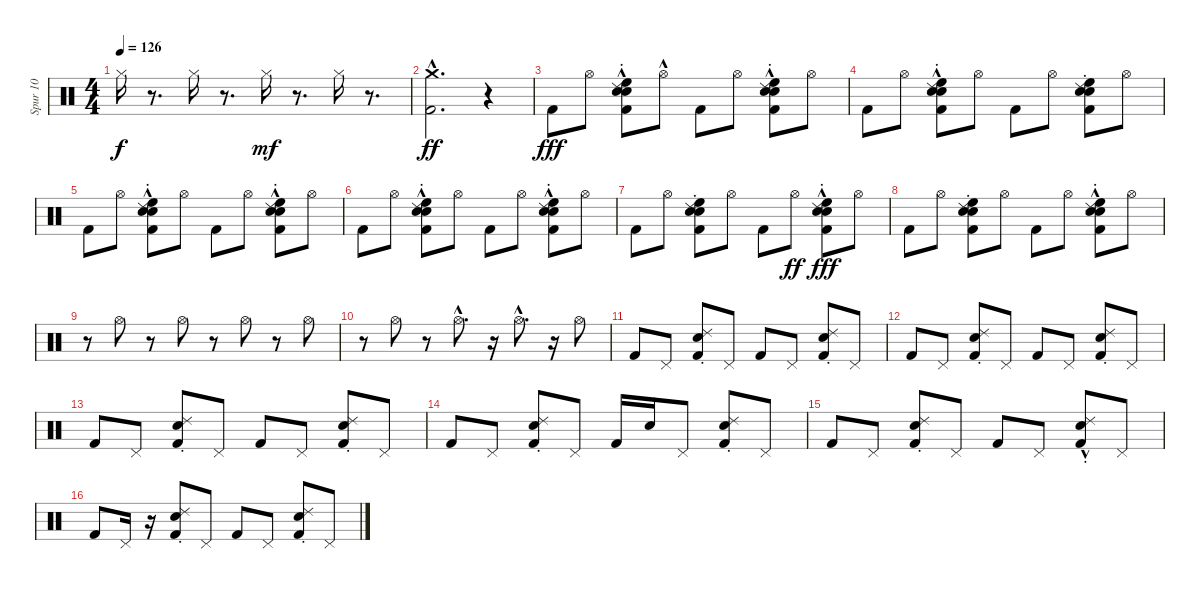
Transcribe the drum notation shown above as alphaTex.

\track ("Spur 10" "Spur 10") {instrument percussion}
\staff {score}
\articulation defaults
\ts (4 4)
\tempo 126
\clef neutral
\ks c "Hi-Hat (closed)".16{dy f}
r.8{d} "Hi-Hat (closed)".16 r.8{d} "Hi-Hat (closed)".16{dy mf} r.8{d} "Hi-Hat (closed)".16 r.8{d} |
("Kick (hit) 2"{hac} "Crash medium (hit)"{hac}).2{d dy ff} r.4 |
"Kick (hit) 2".8{dy fff} "Hi-Hat (open)".8 ("Kick (hit) 2" "Electric Snare (hit)" "High Floor Tom (hit)"{hac} "Ride (choke) 2"{hac} "Snare (hit) 2").8 "Hi-Hat (open)"{hac}.8 "Kick (hit) 2".8 "Hi-Hat (open)".8 ("High Floor Tom (hit)"{hac} "Kick (hit) 2" "Ride (choke) 2" "Electric Snare (hit)" "Snare (hit) 2").8 "Hi-Hat (open)".8 |
"Kick (hit) 2".8 "Hi-Hat (open)".8 ("Kick (hit) 2" "High Floor Tom (hit)"{hac} "Ride (choke) 2"{hac} "Electric Snare (hit)" "Snare (hit) 2").8 "Hi-Hat (open)".8 "Kick (hit) 2".8 "Hi-Hat (open)".8 ("Snare (hit) 2" "Kick (hit) 2" "Electric Snare (hit)" "High Floor Tom (hit)" "Ride (choke) 2").8 "Hi-Hat (open)".8 |
"Kick (hit) 2".8 "Hi-Hat (open)".8 ("High Floor Tom (hit)"{hac} "Ride (choke) 2"{hac} "Electric Snare (hit)" "Snare (hit) 2" "Kick (hit) 2").8 "Hi-Hat (open)".8 "Kick (hit) 2".8 "Hi-Hat (open)".8 ("Electric Snare (hit)" "Kick (hit) 2" "Ride (choke) 2"{hac} "High Floor Tom (hit)"{hac} "Snare (hit) 2").8 "Hi-Hat (open)".8 |
"Kick (hit) 2".8 "Hi-Hat (open)".8 ("High Floor Tom (hit)"{hac} "Electric Snare (hit)" "Ride (choke) 2"{hac} "Kick (hit) 2" "Snare (hit) 2").8 "Hi-Hat (open)".8 "Kick (hit) 2".8 "Hi-Hat (open)".8 ("Kick (hit) 2" "High Floor Tom (hit)"{hac} "Ride (choke) 2"{hac} "Electric Snare (hit)" "Snare (hit) 2").8 "Hi-Hat (open)".8 |
"Kick (hit) 2".8 "Hi-Hat (open)".8 ("Snare (hit) 2" "Kick (hit) 2" "Ride (choke) 2" "Electric Snare (hit)" "High Floor Tom (hit)").8 "Hi-Hat (open)".8 "Kick (hit) 2".8 "Hi-Hat (open)".8{dy ff} ("High Floor Tom (hit)"{hac} "Ride (choke) 2" "Snare (hit) 2" "Electric Snare (hit)" "Kick (hit) 2").8{dy fff} "Hi-Hat (open)".8 |
"Kick (hit) 2".8 "Hi-Hat (open)".8 ("Electric Snare (hit)" "Kick (hit) 2" "Snare (hit) 2" "High Floor Tom (hit)" "Ride (choke) 2").8 "Hi-Hat (open)".8 "Kick (hit) 2".8 "Hi-Hat (open)".8 ("Snare (hit) 2" "Ride (choke) 2"{hac} "High Floor Tom (hit)"{hac} "Kick (hit) 2" "Electric Snare (hit)").8 "Hi-Hat (open)".8 |
r.8 "Hi-Hat (open)".8 r.8 "Hi-Hat (open)".8 r.8 "Hi-Hat (open)".8 r.8 "Hi-Hat (open)".8 |
r.8 "Hi-Hat (open)".8 r.8 "Hi-Hat (open)"{hac}.8{d} r.16 "Hi-Hat (open)"{hac}.8{d} r.16 "Hi-Hat (open)".8 |
"Kick (hit) 2".8 "Pedal Hi-Hat (hit)".8 ("Kick (hit) 2" "Ride (choke) 2" "Snare (hit) 2").8 "Pedal Hi-Hat (hit)".8 "Kick (hit) 2".8 "Pedal Hi-Hat (hit)".8 ("Kick (hit) 2" "Snare (hit) 2" "Ride (choke) 2").8 "Pedal Hi-Hat (hit)".8 |
"Kick (hit) 2".8 "Pedal Hi-Hat (hit)".8 ("Kick (hit) 2" "Ride (choke) 2" "Snare (hit) 2").8 "Pedal Hi-Hat (hit)".8 "Kick (hit) 2".8 "Pedal Hi-Hat (hit)".8 ("Kick (hit) 2" "Ride (choke) 2" "Snare (hit) 2").8 "Pedal Hi-Hat (hit)".8 |
"Kick (hit) 2".8 "Pedal Hi-Hat (hit)".8 ("Snare (hit) 2" "Kick (hit) 2" "Ride (choke) 2").8 "Pedal Hi-Hat (hit)".8 "Kick (hit) 2".8 "Pedal Hi-Hat (hit)".8 ("Snare (hit) 2" "Kick (hit) 2" "Ride (choke) 2").8 "Pedal Hi-Hat (hit)".8 |
"Kick (hit) 2".8 "Pedal Hi-Hat (hit)".8 ("Ride (choke) 2" "Snare (hit) 2" "Kick (hit) 2").8 "Pedal Hi-Hat (hit)".8 "Kick (hit) 2".16 "Snare (hit) 2".16 "Pedal Hi-Hat (hit)".8 ("Snare (hit) 2" "Ride (choke) 2" "Kick (hit) 2").8 "Pedal Hi-Hat (hit)".8 |
"Kick (hit) 2".8 "Pedal Hi-Hat (hit)".8 ("Ride (choke) 2" "Kick (hit) 2" "Snare (hit) 2").8 "Pedal Hi-Hat (hit)".8 "Kick (hit) 2".8 "Pedal Hi-Hat (hit)".8 ("Ride (choke) 2"{hac} "Kick (hit) 2" "Snare (hit) 2").8 "Pedal Hi-Hat (hit)".8 |
"Kick (hit) 2".8 "Pedal Hi-Hat (hit)".16 r.16 ("Ride (choke) 2" "Kick (hit) 2" "Snare (hit) 2").8 "Pedal Hi-Hat (hit)".8 "Kick (hit) 2".8 "Pedal Hi-Hat (hit)".8 ("Snare (hit) 2" "Ride (choke) 2" "Kick (hit) 2").8 "Pedal Hi-Hat (hit)".8
